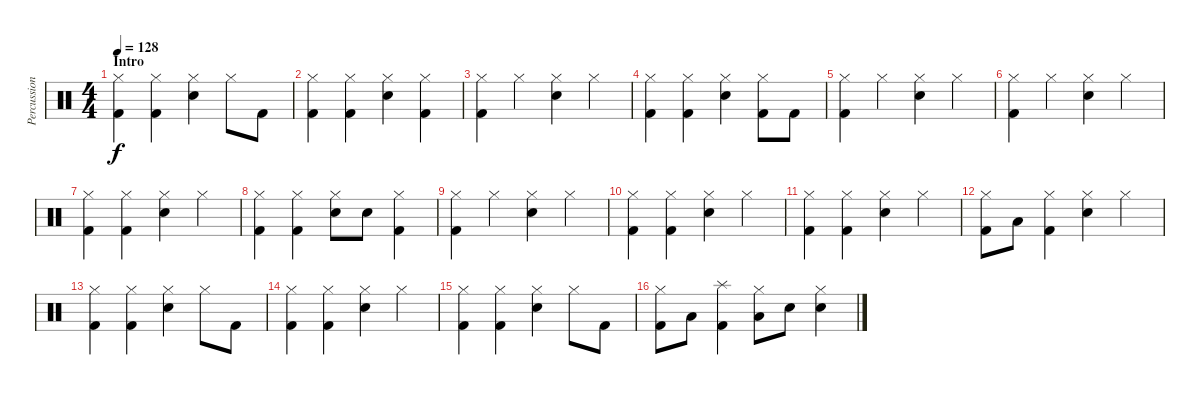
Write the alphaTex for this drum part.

\track ("Percussion" "Percussion") {instrument percussion}
\staff {score}
\articulation defaults
\ts (4 4)
\section ("" "Intro")
\tempo 128
\clef neutral
\ks c
("Hi-Hat (closed)" "Kick (hit) 2").4{dy f} ("Hi-Hat (closed)" "Kick (hit) 2").4 ("Hi-Hat (closed)" "Electric Snare (hit)").4 "Hi-Hat (closed)".8 "Kick (hit) 2".8 |
("Hi-Hat (closed)" "Kick (hit) 2").4 ("Hi-Hat (closed)" "Kick (hit) 2").4 ("Hi-Hat (closed)" "Electric Snare (hit)").4 ("Hi-Hat (closed)" "Kick (hit) 2").4 |
("Hi-Hat (closed)" "Kick (hit) 2").4 "Hi-Hat (closed)".4 ("Hi-Hat (closed)" "Electric Snare (hit)").4 "Hi-Hat (closed)".4 |
("Hi-Hat (closed)" "Kick (hit) 2").4 ("Hi-Hat (closed)" "Kick (hit) 2").4 ("Hi-Hat (closed)" "Electric Snare (hit)").4 ("Hi-Hat (closed)" "Kick (hit) 2").8 "Kick (hit) 2".8 |
("Hi-Hat (closed)" "Kick (hit) 2").4 "Hi-Hat (closed)".4 ("Hi-Hat (closed)" "Electric Snare (hit)").4 "Hi-Hat (closed)".4 |
("Hi-Hat (closed)" "Kick (hit) 2").4 "Hi-Hat (closed)".4 ("Hi-Hat (closed)" "Electric Snare (hit)").4 "Hi-Hat (closed)".4 |
("Hi-Hat (closed)" "Kick (hit) 2").4 ("Hi-Hat (closed)" "Kick (hit) 2").4 ("Hi-Hat (closed)" "Electric Snare (hit)").4 "Hi-Hat (closed)".4 |
("Hi-Hat (closed)" "Kick (hit) 2").4 ("Hi-Hat (closed)" "Kick (hit) 2").4 ("Hi-Hat (closed)" "Electric Snare (hit)").8 "Electric Snare (hit)".8 ("Hi-Hat (closed)" "Kick (hit) 2").4 |
("Hi-Hat (closed)" "Kick (hit) 2").4 "Hi-Hat (closed)".4 ("Hi-Hat (closed)" "Electric Snare (hit)").4 "Hi-Hat (closed)".4 |
("Hi-Hat (closed)" "Kick (hit) 2").4 ("Hi-Hat (closed)" "Kick (hit) 2").4 ("Hi-Hat (closed)" "Electric Snare (hit)").4 "Hi-Hat (closed)".4 |
("Hi-Hat (closed)" "Kick (hit) 2").4 ("Hi-Hat (closed)" "Kick (hit) 2").4 ("Hi-Hat (closed)" "Electric Snare (hit)").4 "Hi-Hat (closed)".4 |
("Hi-Hat (closed)" "Kick (hit) 2").8 "Low Tom (hit)".8 ("Hi-Hat (closed)" "Kick (hit) 2").4 ("Hi-Hat (closed)" "Electric Snare (hit)").4 "Hi-Hat (closed)".4 |
("Hi-Hat (closed)" "Kick (hit) 2").4 ("Hi-Hat (closed)" "Kick (hit) 2").4 ("Hi-Hat (closed)" "Electric Snare (hit)").4 "Hi-Hat (closed)".8 "Kick (hit) 2".8 |
("Hi-Hat (closed)" "Kick (hit) 2").4 ("Hi-Hat (closed)" "Kick (hit) 2").4 ("Hi-Hat (closed)" "Electric Snare (hit)").4 "Hi-Hat (closed)".4 |
("Hi-Hat (closed)" "Kick (hit) 2").4 ("Hi-Hat (closed)" "Kick (hit) 2").4 ("Hi-Hat (closed)" "Electric Snare (hit)").4 "Hi-Hat (closed)".8 "Kick (hit) 2".8 |
("Hi-Hat (closed)" "Kick (hit) 2").8 "Low Tom (hit)".8 ("Splash (hit)" "Kick (hit) 2").4 ("Hi-Hat (closed)" "Low Tom (hit)").8 "Electric Snare (hit)".8 ("Hi-Hat (closed)" "Electric Snare (hit)").4
